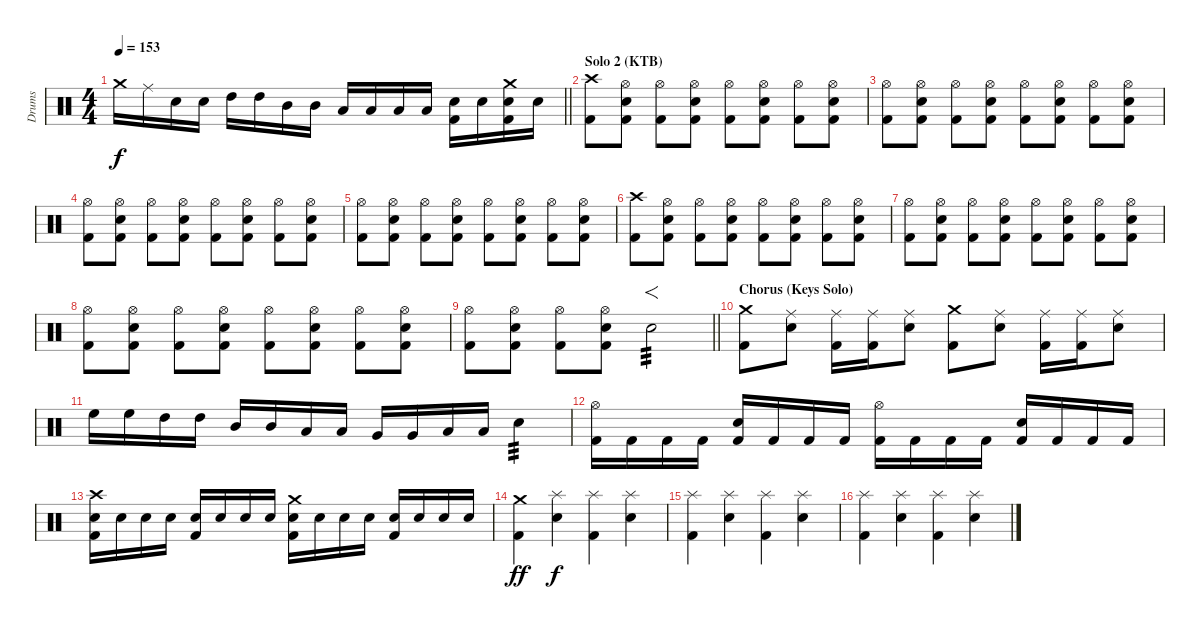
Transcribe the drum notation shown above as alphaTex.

\track ("Drums" "Drums") {instrument percussion}
\staff {score}
\articulation defaults
\ts (4 4)
\tempo 153
\clef neutral
\barLineRight lightlight
\ks c "Crash medium (hit)".16{dy f} "Ride (middle)".16 "Electric Snare (hit)".16 "Electric Snare (hit)".16 "High Tom (hit)".16 "High Tom (hit)".16 "Mid Tom (hit)".16 "Mid Tom (hit)".16 "Low Tom (hit)".16 "Low Tom (hit)".16 "Low Floor Tom (hit)".16 "Low Floor Tom (hit)".16
("Electric Snare (hit)" "Kick (hit) 2").16 "Electric Snare (hit)".16 ("Crash medium (hit)" "Electric Snare (hit)" "Kick (hit) 2").16 "Electric Snare (hit)".16 |
\section ("" "Solo 2 (KTB)")
("Crash high (hit)" "Kick (hit) 2").8 ("Hi-Hat (open)" "Electric Snare (hit)" "Kick (hit) 2").8 ("Hi-Hat (open)" "Kick (hit) 2").8 ("Hi-Hat (open)" "Electric Snare (hit)" "Kick (hit) 2").8 ("Hi-Hat (open)" "Kick (hit) 2").8 ("Hi-Hat (open)" "Electric Snare (hit)" "Kick (hit) 2").8 ("Hi-Hat (open)" "Kick (hit) 2").8 ("Hi-Hat (open)" "Electric Snare (hit)" "Kick (hit) 2").8 |
("Hi-Hat (open)" "Kick (hit) 2").8 ("Hi-Hat (open)" "Electric Snare (hit)" "Kick (hit) 2").8 ("Hi-Hat (open)" "Kick (hit) 2").8 ("Hi-Hat (open)" "Electric Snare (hit)" "Kick (hit) 2").8 ("Hi-Hat (open)" "Kick (hit) 2").8 ("Hi-Hat (open)" "Electric Snare (hit)" "Kick (hit) 2").8 ("Hi-Hat (open)" "Kick (hit) 2").8 ("Hi-Hat (open)" "Electric Snare (hit)" "Kick (hit) 2").8 |
("Hi-Hat (open)" "Kick (hit) 2").8 ("Hi-Hat (open)" "Electric Snare (hit)" "Kick (hit) 2").8 ("Hi-Hat (open)" "Kick (hit) 2").8 ("Hi-Hat (open)" "Electric Snare (hit)" "Kick (hit) 2").8 ("Hi-Hat (open)" "Kick (hit) 2").8 ("Hi-Hat (open)" "Electric Snare (hit)" "Kick (hit) 2").8 ("Hi-Hat (open)" "Kick (hit) 2").8 ("Hi-Hat (open)" "Electric Snare (hit)" "Kick (hit) 2").8 |
("Hi-Hat (open)" "Kick (hit) 2").8 ("Hi-Hat (open)" "Electric Snare (hit)" "Kick (hit) 2").8 ("Hi-Hat (open)" "Kick (hit) 2").8 ("Hi-Hat (open)" "Electric Snare (hit)" "Kick (hit) 2").8 ("Hi-Hat (open)" "Kick (hit) 2").8 ("Hi-Hat (open)" "Electric Snare (hit)" "Kick (hit) 2").8 ("Hi-Hat (open)" "Kick (hit) 2").8 ("Hi-Hat (open)" "Electric Snare (hit)" "Kick (hit) 2").8 |
("Crash high (hit)" "Kick (hit) 2").8 ("Hi-Hat (open)" "Electric Snare (hit)" "Kick (hit) 2").8 ("Hi-Hat (open)" "Kick (hit) 2").8 ("Hi-Hat (open)" "Electric Snare (hit)" "Kick (hit) 2").8 ("Hi-Hat (open)" "Kick (hit) 2").8 ("Hi-Hat (open)" "Electric Snare (hit)" "Kick (hit) 2").8 ("Hi-Hat (open)" "Kick (hit) 2").8 ("Hi-Hat (open)" "Electric Snare (hit)" "Kick (hit) 2").8 |
("Hi-Hat (open)" "Kick (hit) 2").8 ("Hi-Hat (open)" "Electric Snare (hit)" "Kick (hit) 2").8 ("Hi-Hat (open)" "Kick (hit) 2").8 ("Hi-Hat (open)" "Electric Snare (hit)" "Kick (hit) 2").8 ("Hi-Hat (open)" "Kick (hit) 2").8 ("Hi-Hat (open)" "Electric Snare (hit)" "Kick (hit) 2").8 ("Hi-Hat (open)" "Kick (hit) 2").8 ("Hi-Hat (open)" "Electric Snare (hit)" "Kick (hit) 2").8 |
("Hi-Hat (open)" "Kick (hit) 2").8 ("Hi-Hat (open)" "Electric Snare (hit)" "Kick (hit) 2").8 ("Hi-Hat (open)" "Kick (hit) 2").8 ("Hi-Hat (open)" "Electric Snare (hit)" "Kick (hit) 2").8 ("Hi-Hat (open)" "Kick (hit) 2").8 ("Hi-Hat (open)" "Electric Snare (hit)" "Kick (hit) 2").8 ("Hi-Hat (open)" "Kick (hit) 2").8 ("Hi-Hat (open)" "Electric Snare (hit)" "Kick (hit) 2").8 |
\barLineRight lightlight
("Hi-Hat (open)" "Kick (hit) 2").8 ("Hi-Hat (open)" "Electric Snare (hit)" "Kick (hit) 2").8 ("Hi-Hat (open)" "Kick (hit) 2").8 ("Hi-Hat (open)" "Electric Snare (hit)" "Kick (hit) 2").8 "Electric Snare (hit)".2{f tp 3} |
\section ("" "Chorus (Keys Solo)")
("Crash medium (hit)" "Kick (hit) 2").8 ("Ride (middle)" "Electric Snare (hit)").8 ("Ride (middle)" "Kick (hit) 2").16 ("Ride (middle)" "Kick (hit) 2").16 ("Ride (middle)" "Electric Snare (hit)").8 ("Crash medium (hit)" "Kick (hit) 2").8 ("Ride (middle)" "Electric Snare (hit)").8 ("Ride (middle)" "Kick (hit) 2").16 ("Ride (middle)" "Kick (hit) 2").16 ("Ride (middle)" "Electric Snare (hit)").8 |
"High Floor Tom (hit)".16 "High Floor Tom (hit)".16 "High Tom (hit)".16 "High Tom (hit)".16 "Mid Tom (hit)".16 "Mid Tom (hit)".16 "Low Tom (hit)".16 "Low Tom (hit)".16 "Very Low Tom (hit)".16 "Very Low Tom (hit)".16 "Low Floor Tom (hit)".16 "Low Floor Tom (hit)".16 "Electric Snare (hit)".4{tp 3} |
("Hi-Hat (open)" "Kick (hit) 2").16 "Kick (hit) 2".16 "Kick (hit) 2".16 "Kick (hit) 2".16 ("Electric Snare (hit)" "Kick (hit) 2").16 "Kick (hit) 2".16 "Kick (hit) 2".16 "Kick (hit) 2".16 ("Hi-Hat (open)" "Kick (hit) 2").16 "Kick (hit) 2".16 "Kick (hit) 2".16 "Kick (hit) 2".16 ("Electric Snare (hit)" "Kick (hit) 2").16 "Kick (hit) 2".16 "Kick (hit) 2".16 "Kick (hit) 2".16 |
("Crash high (hit)" "Electric Snare (hit)" "Kick (hit) 2").16 "Electric Snare (hit)".16 "Electric Snare (hit)".16 "Electric Snare (hit)".16 ("Electric Snare (hit)" "Kick (hit) 2").16 "Electric Snare (hit)".16 "Electric Snare (hit)".16 "Electric Snare (hit)".16 ("Crash medium (hit)" "Electric Snare (hit)" "Kick (hit) 2").16 "Electric Snare (hit)".16 "Electric Snare (hit)".16 "Electric Snare (hit)".16 ("Electric Snare (hit)" "Kick (hit) 2").16 "Electric Snare (hit)".16 "Electric Snare (hit)".16 "Electric Snare (hit)".16 |
("Crash medium (hit)" "Kick (hit) 2").4{dy ff} ("Splash (hit)" "Electric Snare (hit)").4{dy f} ("Splash (hit)" "Kick (hit) 2").4 ("Splash (hit)" "Electric Snare (hit)").4 |
("Splash (hit)" "Kick (hit) 2").4 ("Splash (hit)" "Electric Snare (hit)").4 ("Splash (hit)" "Kick (hit) 2").4 ("Splash (hit)" "Electric Snare (hit)").4 |
("Splash (hit)" "Kick (hit) 2").4 ("Splash (hit)" "Electric Snare (hit)").4 ("Splash (hit)" "Kick (hit) 2").4 ("Splash (hit)" "Electric Snare (hit)").4
